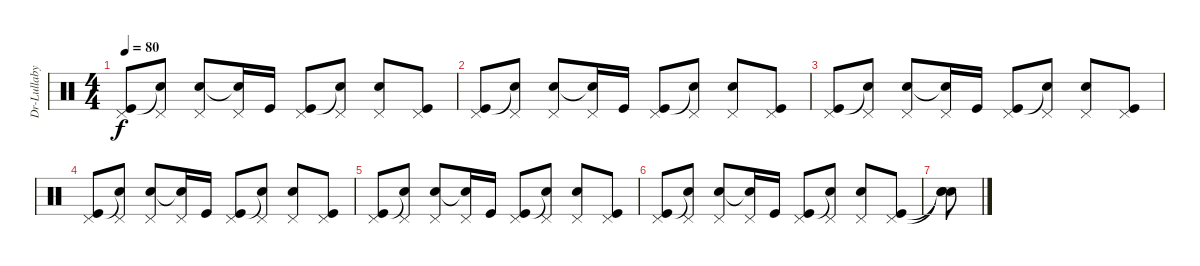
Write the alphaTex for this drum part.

\track ("Dr-Lullaby" "Dr-Lullaby") {instrument percussion}
\staff {score}
\articulation defaults
\ts (4 4)
\tempo 80
\clef neutral
\ks c
("Kick (hit)" "Pedal Hi-Hat (hit)").8{dy f} ("Snare (hit)"{t} "Pedal Hi-Hat (hit)").8 ("Snare (hit) 2" "Pedal Hi-Hat (hit)").8 ("Snare (hit)"{t} "Pedal Hi-Hat (hit)").16 "Kick (hit)".16 ("Kick (hit)" "Pedal Hi-Hat (hit)").8 ("Snare (hit)"{t} "Pedal Hi-Hat (hit)").8 ("Snare (hit) 2" "Pedal Hi-Hat (hit)").8 ("Kick (hit)" "Pedal Hi-Hat (hit)").8 |
("Kick (hit)" "Pedal Hi-Hat (hit)").8 ("Snare (hit)"{t} "Pedal Hi-Hat (hit)").8 ("Snare (hit) 2" "Pedal Hi-Hat (hit)").8 ("Snare (hit)"{t} "Pedal Hi-Hat (hit)").16 "Kick (hit)".16 ("Kick (hit)" "Pedal Hi-Hat (hit)").8 ("Snare (hit)"{t} "Pedal Hi-Hat (hit)").8 ("Snare (hit) 2" "Pedal Hi-Hat (hit)").8 ("Kick (hit)" "Pedal Hi-Hat (hit)").8 |
("Kick (hit)" "Pedal Hi-Hat (hit)").8 ("Snare (hit)"{t} "Pedal Hi-Hat (hit)").8 ("Snare (hit) 2" "Pedal Hi-Hat (hit)").8 ("Snare (hit)"{t} "Pedal Hi-Hat (hit)").16 "Kick (hit)".16 ("Kick (hit)" "Pedal Hi-Hat (hit)").8 ("Snare (hit)"{t} "Pedal Hi-Hat (hit)").8 ("Snare (hit) 2" "Pedal Hi-Hat (hit)").8 ("Kick (hit)" "Pedal Hi-Hat (hit)").8 |
("Kick (hit)" "Pedal Hi-Hat (hit)").8 ("Snare (hit)"{t} "Pedal Hi-Hat (hit)").8 ("Snare (hit) 2" "Pedal Hi-Hat (hit)").8 ("Snare (hit)"{t} "Pedal Hi-Hat (hit)").16 "Kick (hit)".16 ("Kick (hit)" "Pedal Hi-Hat (hit)").8 ("Snare (hit)"{t} "Pedal Hi-Hat (hit)").8 ("Snare (hit) 2" "Pedal Hi-Hat (hit)").8 ("Kick (hit)" "Pedal Hi-Hat (hit)").8 |
("Kick (hit)" "Pedal Hi-Hat (hit)").8 ("Snare (hit)"{t} "Pedal Hi-Hat (hit)").8 ("Snare (hit) 2" "Pedal Hi-Hat (hit)").8 ("Snare (hit)"{t} "Pedal Hi-Hat (hit)").16 "Kick (hit)".16 ("Kick (hit)" "Pedal Hi-Hat (hit)").8 ("Snare (hit)"{t} "Pedal Hi-Hat (hit)").8 ("Snare (hit) 2" "Pedal Hi-Hat (hit)").8 ("Kick (hit)" "Pedal Hi-Hat (hit)").8 |
("Kick (hit)" "Pedal Hi-Hat (hit)").8 ("Snare (hit)"{t} "Pedal Hi-Hat (hit)").8 ("Snare (hit) 2" "Pedal Hi-Hat (hit)").8 ("Snare (hit)"{t} "Pedal Hi-Hat (hit)").16 "Kick (hit)".16 ("Kick (hit)" "Pedal Hi-Hat (hit)").8 ("Snare (hit)"{t} "Pedal Hi-Hat (hit)").8 ("Snare (hit) 2" "Pedal Hi-Hat (hit)").8 ("Kick (hit)" "Pedal Hi-Hat (hit)").8 |
("Snare (hit)"{t} "Snare (hit)"{t} "Snare (hit)").8
